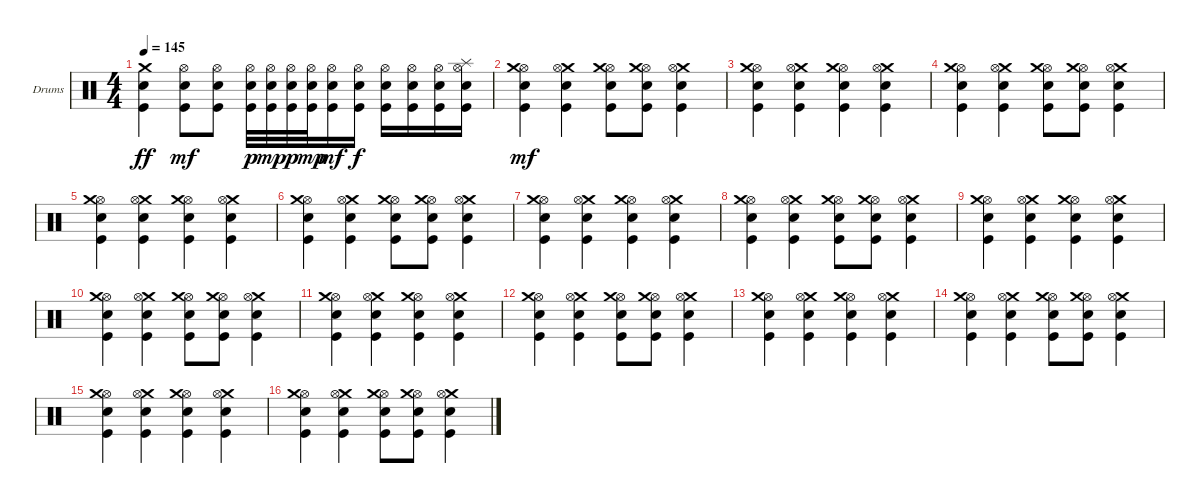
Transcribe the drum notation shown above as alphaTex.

\defaultSystemsLayout 4
\bracketExtendMode groupsimilarinstruments
\firstSystemTrackNameOrientation horizontal
\otherSystemsTrackNameOrientation horizontal
\track ("Е. Кулаков" "Drums") {instrument percussion}
\staff {score}
\articulation defaults
\ts (4 4)
\tempo 145
\clef neutral
\ks c
("Kick (hit)"{t} "Snare (hit) 2"{t} "Crash medium (hit)"{t}).4{dy ff} ("Kick (hit)" "Snare (hit) 2" "Hi-Hat (open)").8{dy mf} ("Kick (hit)" "Snare (hit) 2" "Hi-Hat (open)").8 ("Kick (hit)" "Snare (hit) 2" "Hi-Hat (open)").32{dy p} ("Kick (hit)" "Snare (hit) 2" "Hi-Hat (open)").32{dy mp} ("Kick (hit)" "Snare (hit) 2" "Hi-Hat (open)").32{dy p} ("Kick (hit)" "Snare (hit) 2" "Hi-Hat (open)").32{dy mp} ("Kick (hit)" "Snare (hit) 2" "Hi-Hat (open)").16{dy mf} ("Kick (hit)" "Snare (hit) 2" "Hi-Hat (open)").16{dy f} ("Kick (hit)" "Snare (hit) 2" "Hi-Hat (open)").16 ("Kick (hit)" "Snare (hit) 2" "Hi-Hat (open)").16 ("Kick (hit)" "Snare (hit) 2" "Hi-Hat (open)").16 ("Kick (hit)" "Snare (hit) 2" "Hi-Hat (open)" "Splash (hit)").16 |
("Kick (hit)" "Snare (hit) 2" "Hi-Hat (open)" "Crash medium (hit)").4{dy mf} ("Kick (hit)" "Snare (hit) 2" "Crash medium (hit)" "Hi-Hat (open)").4 ("Kick (hit)" "Snare (hit) 2" "Hi-Hat (open)" "Crash medium (hit)").8 ("Kick (hit)" "Snare (hit) 2" "Hi-Hat (open)" "Crash medium (hit)").8 ("Kick (hit)" "Snare (hit) 2" "Crash medium (hit)" "Hi-Hat (open)").4 |
("Kick (hit)" "Snare (hit) 2" "Hi-Hat (open)" "Crash medium (hit)").4 ("Kick (hit)" "Snare (hit) 2" "Crash medium (hit)" "Hi-Hat (open)").4 ("Kick (hit)" "Snare (hit) 2" "Hi-Hat (open)" "Crash medium (hit)").4 ("Kick (hit)" "Snare (hit) 2" "Crash medium (hit)" "Hi-Hat (open)").4 |
("Kick (hit)" "Snare (hit) 2" "Hi-Hat (open)" "Crash medium (hit)").4 ("Kick (hit)" "Snare (hit) 2" "Crash medium (hit)" "Hi-Hat (open)").4 ("Kick (hit)" "Snare (hit) 2" "Hi-Hat (open)" "Crash medium (hit)").8 ("Kick (hit)" "Snare (hit) 2" "Hi-Hat (open)" "Crash medium (hit)").8 ("Kick (hit)" "Snare (hit) 2" "Crash medium (hit)" "Hi-Hat (open)").4 |
("Kick (hit)" "Snare (hit) 2" "Hi-Hat (open)" "Crash medium (hit)").4 ("Kick (hit)" "Snare (hit) 2" "Crash medium (hit)" "Hi-Hat (open)").4 ("Kick (hit)" "Snare (hit) 2" "Hi-Hat (open)" "Crash medium (hit)").4 ("Kick (hit)" "Snare (hit) 2" "Crash medium (hit)" "Hi-Hat (open)").4 |
("Kick (hit)" "Snare (hit) 2" "Hi-Hat (open)" "Crash medium (hit)").4 ("Kick (hit)" "Snare (hit) 2" "Crash medium (hit)" "Hi-Hat (open)").4 ("Kick (hit)" "Snare (hit) 2" "Hi-Hat (open)" "Crash medium (hit)").8 ("Kick (hit)" "Snare (hit) 2" "Hi-Hat (open)" "Crash medium (hit)").8 ("Kick (hit)" "Snare (hit) 2" "Crash medium (hit)" "Hi-Hat (open)").4 |
("Kick (hit)" "Snare (hit) 2" "Hi-Hat (open)" "Crash medium (hit)").4 ("Kick (hit)" "Snare (hit) 2" "Crash medium (hit)" "Hi-Hat (open)").4 ("Kick (hit)" "Snare (hit) 2" "Hi-Hat (open)" "Crash medium (hit)").4 ("Kick (hit)" "Snare (hit) 2" "Crash medium (hit)" "Hi-Hat (open)").4 |
("Kick (hit)" "Snare (hit) 2" "Hi-Hat (open)" "Crash medium (hit)").4 ("Kick (hit)" "Snare (hit) 2" "Crash medium (hit)" "Hi-Hat (open)").4 ("Kick (hit)" "Snare (hit) 2" "Hi-Hat (open)" "Crash medium (hit)").8 ("Kick (hit)" "Snare (hit) 2" "Hi-Hat (open)" "Crash medium (hit)").8 ("Kick (hit)" "Snare (hit) 2" "Crash medium (hit)" "Hi-Hat (open)").4 |
("Kick (hit)" "Snare (hit) 2" "Hi-Hat (open)" "Crash medium (hit)").4 ("Kick (hit)" "Snare (hit) 2" "Crash medium (hit)" "Hi-Hat (open)").4 ("Kick (hit)" "Snare (hit) 2" "Hi-Hat (open)" "Crash medium (hit)").4 ("Kick (hit)" "Snare (hit) 2" "Crash medium (hit)" "Hi-Hat (open)").4 |
("Kick (hit)" "Snare (hit) 2" "Hi-Hat (open)" "Crash medium (hit)").4 ("Kick (hit)" "Snare (hit) 2" "Crash medium (hit)" "Hi-Hat (open)").4 ("Kick (hit)" "Snare (hit) 2" "Hi-Hat (open)" "Crash medium (hit)").8 ("Kick (hit)" "Snare (hit) 2" "Hi-Hat (open)" "Crash medium (hit)").8 ("Kick (hit)" "Snare (hit) 2" "Crash medium (hit)" "Hi-Hat (open)").4 |
("Kick (hit)" "Snare (hit) 2" "Hi-Hat (open)" "Crash medium (hit)").4 ("Kick (hit)" "Snare (hit) 2" "Crash medium (hit)" "Hi-Hat (open)").4 ("Kick (hit)" "Snare (hit) 2" "Hi-Hat (open)" "Crash medium (hit)").4 ("Kick (hit)" "Snare (hit) 2" "Crash medium (hit)" "Hi-Hat (open)").4 |
("Kick (hit)" "Snare (hit) 2" "Hi-Hat (open)" "Crash medium (hit)").4 ("Kick (hit)" "Snare (hit) 2" "Crash medium (hit)" "Hi-Hat (open)").4 ("Kick (hit)" "Snare (hit) 2" "Hi-Hat (open)" "Crash medium (hit)").8 ("Kick (hit)" "Snare (hit) 2" "Hi-Hat (open)" "Crash medium (hit)").8 ("Kick (hit)" "Snare (hit) 2" "Crash medium (hit)" "Hi-Hat (open)").4 |
("Kick (hit)" "Snare (hit) 2" "Hi-Hat (open)" "Crash medium (hit)").4 ("Kick (hit)" "Snare (hit) 2" "Crash medium (hit)" "Hi-Hat (open)").4 ("Kick (hit)" "Snare (hit) 2" "Hi-Hat (open)" "Crash medium (hit)").4 ("Kick (hit)" "Snare (hit) 2" "Crash medium (hit)" "Hi-Hat (open)").4 |
("Kick (hit)" "Snare (hit) 2" "Hi-Hat (open)" "Crash medium (hit)").4 ("Kick (hit)" "Snare (hit) 2" "Crash medium (hit)" "Hi-Hat (open)").4 ("Kick (hit)" "Snare (hit) 2" "Hi-Hat (open)" "Crash medium (hit)").8 ("Kick (hit)" "Snare (hit) 2" "Hi-Hat (open)" "Crash medium (hit)").8 ("Kick (hit)" "Snare (hit) 2" "Crash medium (hit)" "Hi-Hat (open)").4 |
("Kick (hit)" "Snare (hit) 2" "Hi-Hat (open)" "Crash medium (hit)").4 ("Kick (hit)" "Snare (hit) 2" "Crash medium (hit)" "Hi-Hat (open)").4 ("Kick (hit)" "Snare (hit) 2" "Hi-Hat (open)" "Crash medium (hit)").4 ("Kick (hit)" "Snare (hit) 2" "Crash medium (hit)" "Hi-Hat (open)").4 |
("Kick (hit)" "Snare (hit) 2" "Hi-Hat (open)" "Crash medium (hit)").4 ("Kick (hit)" "Snare (hit) 2" "Crash medium (hit)" "Hi-Hat (open)").4 ("Kick (hit)" "Snare (hit) 2" "Hi-Hat (open)" "Crash medium (hit)").8 ("Kick (hit)" "Snare (hit) 2" "Hi-Hat (open)" "Crash medium (hit)").8 ("Kick (hit)" "Snare (hit) 2" "Crash medium (hit)" "Hi-Hat (open)").4
